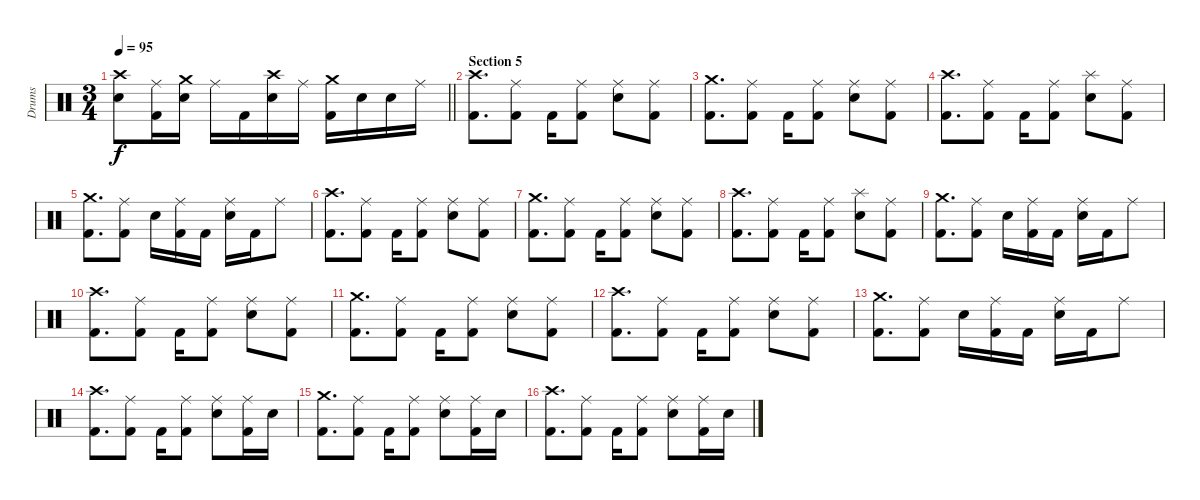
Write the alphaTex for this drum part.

\track ("Drums" "Drums") {instrument percussion}
\staff {score}
\articulation defaults
\ts (3 4)
\tempo 95
\clef neutral
\barLineRight lightlight
\ks c
("Crash high (hit)" "Electric Snare (hit)").8{dy f volume 13} ("Ride (middle)" "Kick (hit) 2").16 ("Crash medium (hit)" "Electric Snare (hit)").16 "Ride (middle)".16 "Kick (hit) 2".16 ("Crash high (hit)" "Electric Snare (hit)").16 "Ride (middle)".16 ("Crash medium (hit)" "Kick (hit) 2").16 "Electric Snare (hit)".16 "Electric Snare (hit)".16 "Ride (middle)".16 |
\section ("" "Section 5")
("Crash high (hit)" "Kick (hit) 2").8{d} ("Ride (middle)" "Kick (hit) 2").8 "Kick (hit) 2".16 ("Ride (middle)" "Kick (hit) 2").8 ("Ride (middle)" "Electric Snare (hit)").8 ("Ride (middle)" "Kick (hit) 2").8 |
("Crash medium (hit)" "Kick (hit) 2").8{d} ("Ride (middle)" "Kick (hit) 2").8 "Kick (hit) 2".16 ("Ride (middle)" "Kick (hit) 2").8 ("Ride (middle)" "Electric Snare (hit)").8 ("Ride (middle)" "Kick (hit) 2").8 |
("Crash high (hit)" "Kick (hit) 2").8{d} ("Ride (middle)" "Kick (hit) 2").8 "Kick (hit) 2".16 ("Ride (middle)" "Kick (hit) 2").8 ("Splash (hit)" "Electric Snare (hit)").8 ("Ride (middle)" "Kick (hit) 2").8 |
("Crash medium (hit)" "Kick (hit) 2").8{d} ("Ride (middle)" "Kick (hit) 2").8 "Electric Snare (hit)".16 ("Ride (middle)" "Kick (hit) 2").16 "Kick (hit) 2".16 ("Ride (middle)" "Electric Snare (hit)").16 "Kick (hit) 2".16 "Ride (middle)".8 |
("Crash high (hit)" "Kick (hit) 2").8{d} ("Ride (middle)" "Kick (hit) 2").8 "Kick (hit) 2".16 ("Ride (middle)" "Kick (hit) 2").8 ("Ride (middle)" "Electric Snare (hit)").8 ("Ride (middle)" "Kick (hit) 2").8 |
("Crash medium (hit)" "Kick (hit) 2").8{d} ("Ride (middle)" "Kick (hit) 2").8 "Kick (hit) 2".16 ("Ride (middle)" "Kick (hit) 2").8 ("Ride (middle)" "Electric Snare (hit)").8 ("Ride (middle)" "Kick (hit) 2").8 |
("Crash high (hit)" "Kick (hit) 2").8{d} ("Ride (middle)" "Kick (hit) 2").8 "Kick (hit) 2".16 ("Ride (middle)" "Kick (hit) 2").8 ("Splash (hit)" "Electric Snare (hit)").8 ("Ride (middle)" "Kick (hit) 2").8 |
("Crash medium (hit)" "Kick (hit) 2").8{d} ("Ride (middle)" "Kick (hit) 2").8 "Electric Snare (hit)".16 ("Ride (middle)" "Kick (hit) 2").16 "Kick (hit) 2".16 ("Ride (middle)" "Electric Snare (hit)").16 "Kick (hit) 2".16 "Ride (middle)".8 |
("Crash high (hit)" "Kick (hit) 2").8{d} ("Ride (middle)" "Kick (hit) 2").8 "Kick (hit) 2".16 ("Ride (middle)" "Kick (hit) 2").8 ("Ride (middle)" "Electric Snare (hit)").8 ("Ride (middle)" "Kick (hit) 2").8 |
("Crash medium (hit)" "Kick (hit) 2").8{d} ("Ride (middle)" "Kick (hit) 2").8 "Kick (hit) 2".16 ("Ride (middle)" "Kick (hit) 2").8 ("Ride (middle)" "Electric Snare (hit)").8 ("Ride (middle)" "Kick (hit) 2").8 |
("Crash high (hit)" "Kick (hit) 2").8{d} ("Ride (middle)" "Kick (hit) 2").8 "Kick (hit) 2".16 ("Ride (middle)" "Kick (hit) 2").8 ("Ride (middle)" "Electric Snare (hit)").8 ("Ride (middle)" "Kick (hit) 2").8 |
("Crash medium (hit)" "Kick (hit) 2").8{d} ("Ride (middle)" "Kick (hit) 2").8 "Electric Snare (hit)".16 ("Ride (middle)" "Kick (hit) 2").16 "Kick (hit) 2".16 ("Ride (middle)" "Electric Snare (hit)").16 "Kick (hit) 2".16 "Ride (middle)".8 |
("Crash high (hit)" "Kick (hit) 2").8{d} ("Ride (middle)" "Kick (hit) 2").8 "Kick (hit) 2".16 ("Ride (middle)" "Kick (hit) 2").8 ("Ride (middle)" "Electric Snare (hit)").8 ("Ride (middle)" "Kick (hit) 2").16 "Electric Snare (hit)".16 |
("Crash medium (hit)" "Kick (hit) 2").8{d} ("Ride (middle)" "Kick (hit) 2").8 "Kick (hit) 2".16 ("Ride (middle)" "Kick (hit) 2").8 ("Ride (middle)" "Electric Snare (hit)").8 ("Ride (middle)" "Kick (hit) 2").16 "Electric Snare (hit)".16 |
("Crash high (hit)" "Kick (hit) 2").8{d} ("Ride (middle)" "Kick (hit) 2").8 "Kick (hit) 2".16 ("Ride (middle)" "Kick (hit) 2").8 ("Ride (middle)" "Electric Snare (hit)").8 ("Ride (middle)" "Kick (hit) 2").16 "Electric Snare (hit)".16
